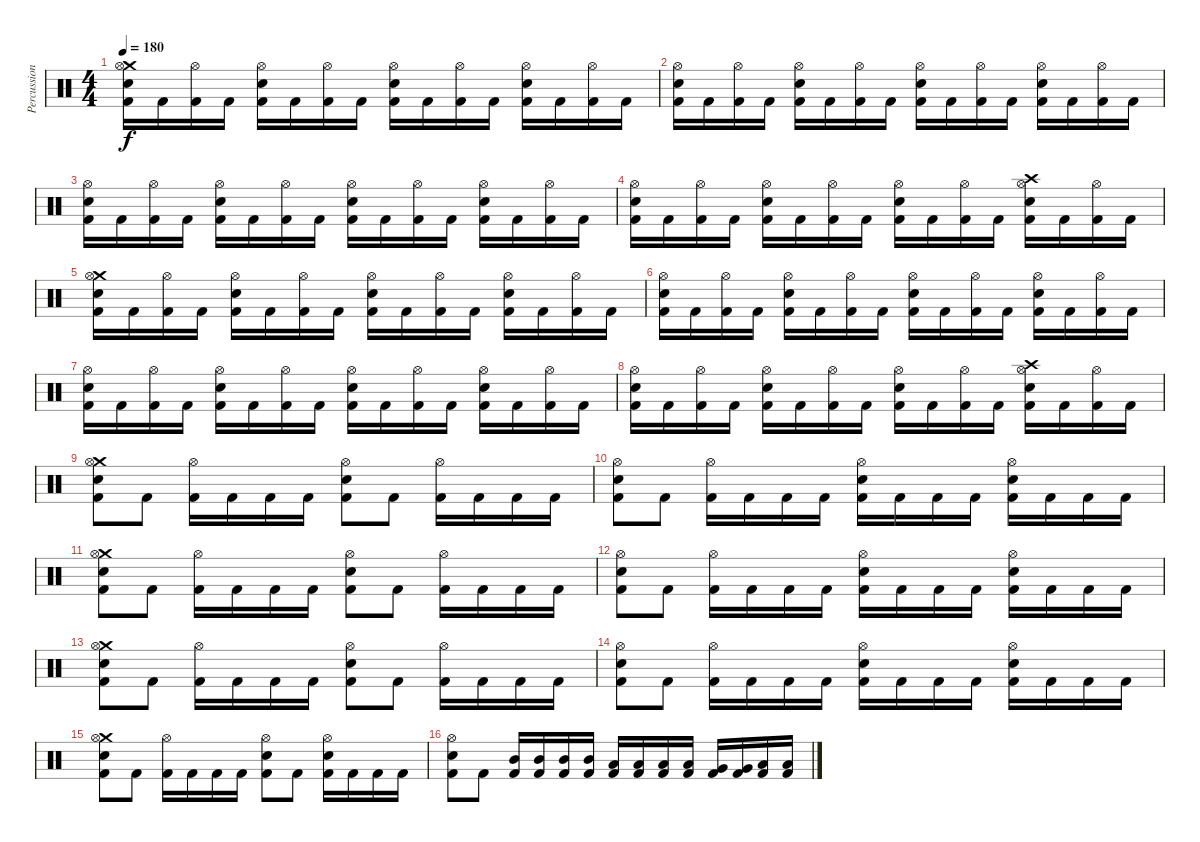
\track ("Percussion" "Percussion") {instrument percussion}
\staff {score}
\articulation defaults
\ts (4 4)
\tempo 180
\clef neutral
\ks c
("Crash medium (hit)" "Hi-Hat (open)" "Electric Snare (hit)" "Kick (hit) 2").16{dy f} "Kick (hit) 2".16 ("Hi-Hat (open)" "Kick (hit) 2").16 "Kick (hit) 2".16 ("Hi-Hat (open)" "Electric Snare (hit)" "Kick (hit) 2").16 "Kick (hit) 2".16 ("Hi-Hat (open)" "Kick (hit) 2").16 "Kick (hit) 2".16 ("Hi-Hat (open)" "Electric Snare (hit)" "Kick (hit) 2").16 "Kick (hit) 2".16 ("Hi-Hat (open)" "Kick (hit) 2").16 "Kick (hit) 2".16 ("Hi-Hat (open)" "Electric Snare (hit)" "Kick (hit) 2").16 "Kick (hit) 2".16 ("Hi-Hat (open)" "Kick (hit) 2").16 "Kick (hit) 2".16 |
("Hi-Hat (open)" "Electric Snare (hit)" "Kick (hit) 2").16 "Kick (hit) 2".16 ("Hi-Hat (open)" "Kick (hit) 2").16 "Kick (hit) 2".16 ("Hi-Hat (open)" "Electric Snare (hit)" "Kick (hit) 2").16 "Kick (hit) 2".16 ("Hi-Hat (open)" "Kick (hit) 2").16 "Kick (hit) 2".16 ("Hi-Hat (open)" "Electric Snare (hit)" "Kick (hit) 2").16 "Kick (hit) 2".16 ("Hi-Hat (open)" "Kick (hit) 2").16 "Kick (hit) 2".16 ("Hi-Hat (open)" "Electric Snare (hit)" "Kick (hit) 2").16 "Kick (hit) 2".16 ("Hi-Hat (open)" "Kick (hit) 2").16 "Kick (hit) 2".16 |
("Hi-Hat (open)" "Electric Snare (hit)" "Kick (hit) 2").16 "Kick (hit) 2".16 ("Hi-Hat (open)" "Kick (hit) 2").16 "Kick (hit) 2".16 ("Hi-Hat (open)" "Electric Snare (hit)" "Kick (hit) 2").16 "Kick (hit) 2".16 ("Hi-Hat (open)" "Kick (hit) 2").16 "Kick (hit) 2".16 ("Hi-Hat (open)" "Electric Snare (hit)" "Kick (hit) 2").16 "Kick (hit) 2".16 ("Hi-Hat (open)" "Kick (hit) 2").16 "Kick (hit) 2".16 ("Hi-Hat (open)" "Electric Snare (hit)" "Kick (hit) 2").16 "Kick (hit) 2".16 ("Hi-Hat (open)" "Kick (hit) 2").16 "Kick (hit) 2".16 |
("Hi-Hat (open)" "Electric Snare (hit)" "Kick (hit) 2").16 "Kick (hit) 2".16 ("Hi-Hat (open)" "Kick (hit) 2").16 "Kick (hit) 2".16 ("Hi-Hat (open)" "Electric Snare (hit)" "Kick (hit) 2").16 "Kick (hit) 2".16 ("Hi-Hat (open)" "Kick (hit) 2").16 "Kick (hit) 2".16 ("Hi-Hat (open)" "Electric Snare (hit)" "Kick (hit) 2").16 "Kick (hit) 2".16 ("Hi-Hat (open)" "Kick (hit) 2").16 "Kick (hit) 2".16 ("Crash high (hit)" "Hi-Hat (open)" "Electric Snare (hit)" "Kick (hit) 2").16 "Kick (hit) 2".16 ("Hi-Hat (open)" "Kick (hit) 2").16 "Kick (hit) 2".16 |
("Crash medium (hit)" "Hi-Hat (open)" "Electric Snare (hit)" "Kick (hit) 2").16 "Kick (hit) 2".16 ("Hi-Hat (open)" "Kick (hit) 2").16 "Kick (hit) 2".16 ("Hi-Hat (open)" "Electric Snare (hit)" "Kick (hit) 2").16 "Kick (hit) 2".16 ("Hi-Hat (open)" "Kick (hit) 2").16 "Kick (hit) 2".16 ("Hi-Hat (open)" "Electric Snare (hit)" "Kick (hit) 2").16 "Kick (hit) 2".16 ("Hi-Hat (open)" "Kick (hit) 2").16 "Kick (hit) 2".16 ("Hi-Hat (open)" "Electric Snare (hit)" "Kick (hit) 2").16 "Kick (hit) 2".16 ("Hi-Hat (open)" "Kick (hit) 2").16 "Kick (hit) 2".16 |
("Hi-Hat (open)" "Electric Snare (hit)" "Kick (hit) 2").16 "Kick (hit) 2".16 ("Hi-Hat (open)" "Kick (hit) 2").16 "Kick (hit) 2".16 ("Hi-Hat (open)" "Electric Snare (hit)" "Kick (hit) 2").16 "Kick (hit) 2".16 ("Hi-Hat (open)" "Kick (hit) 2").16 "Kick (hit) 2".16 ("Hi-Hat (open)" "Electric Snare (hit)" "Kick (hit) 2").16 "Kick (hit) 2".16 ("Hi-Hat (open)" "Kick (hit) 2").16 "Kick (hit) 2".16 ("Hi-Hat (open)" "Electric Snare (hit)" "Kick (hit) 2").16 "Kick (hit) 2".16 ("Hi-Hat (open)" "Kick (hit) 2").16 "Kick (hit) 2".16 |
("Hi-Hat (open)" "Electric Snare (hit)" "Kick (hit) 2").16 "Kick (hit) 2".16 ("Hi-Hat (open)" "Kick (hit) 2").16 "Kick (hit) 2".16 ("Hi-Hat (open)" "Electric Snare (hit)" "Kick (hit) 2").16 "Kick (hit) 2".16 ("Hi-Hat (open)" "Kick (hit) 2").16 "Kick (hit) 2".16 ("Hi-Hat (open)" "Electric Snare (hit)" "Kick (hit) 2").16 "Kick (hit) 2".16 ("Hi-Hat (open)" "Kick (hit) 2").16 "Kick (hit) 2".16 ("Hi-Hat (open)" "Electric Snare (hit)" "Kick (hit) 2").16 "Kick (hit) 2".16 ("Hi-Hat (open)" "Kick (hit) 2").16 "Kick (hit) 2".16 |
("Hi-Hat (open)" "Electric Snare (hit)" "Kick (hit) 2").16 "Kick (hit) 2".16 ("Hi-Hat (open)" "Kick (hit) 2").16 "Kick (hit) 2".16 ("Hi-Hat (open)" "Electric Snare (hit)" "Kick (hit) 2").16 "Kick (hit) 2".16 ("Hi-Hat (open)" "Kick (hit) 2").16 "Kick (hit) 2".16 ("Hi-Hat (open)" "Electric Snare (hit)" "Kick (hit) 2").16 "Kick (hit) 2".16 ("Hi-Hat (open)" "Kick (hit) 2").16 "Kick (hit) 2".16 ("Crash high (hit)" "Hi-Hat (open)" "Electric Snare (hit)" "Kick (hit) 2").16 "Kick (hit) 2".16 ("Hi-Hat (open)" "Kick (hit) 2").16 "Kick (hit) 2".16 |
("Crash medium (hit)" "Hi-Hat (open)" "Electric Snare (hit)" "Kick (hit) 2").8 "Kick (hit) 2".8 ("Hi-Hat (open)" "Kick (hit) 2").16 "Kick (hit) 2".16 "Kick (hit) 2".16 "Kick (hit) 2".16 ("Hi-Hat (open)" "Electric Snare (hit)" "Kick (hit) 2").8 "Kick (hit) 2".8 ("Hi-Hat (open)" "Kick (hit) 2").16 "Kick (hit) 2".16 "Kick (hit) 2".16 "Kick (hit) 2".16 |
("Hi-Hat (open)" "Electric Snare (hit)" "Kick (hit) 2").8 "Kick (hit) 2".8 ("Hi-Hat (open)" "Kick (hit) 2").16 "Kick (hit) 2".16 "Kick (hit) 2".16 "Kick (hit) 2".16 ("Hi-Hat (open)" "Electric Snare (hit)" "Kick (hit) 2").16 "Kick (hit) 2".16 "Kick (hit) 2".16 "Kick (hit) 2".16 ("Hi-Hat (open)" "Electric Snare (hit)" "Kick (hit) 2").16 "Kick (hit) 2".16 "Kick (hit) 2".16 "Kick (hit) 2".16 |
("Crash medium (hit)" "Hi-Hat (open)" "Electric Snare (hit)" "Kick (hit) 2").8 "Kick (hit) 2".8 ("Hi-Hat (open)" "Kick (hit) 2").16 "Kick (hit) 2".16 "Kick (hit) 2".16 "Kick (hit) 2".16 ("Hi-Hat (open)" "Electric Snare (hit)" "Kick (hit) 2").8 "Kick (hit) 2".8 ("Hi-Hat (open)" "Kick (hit) 2").16 "Kick (hit) 2".16 "Kick (hit) 2".16 "Kick (hit) 2".16 |
("Hi-Hat (open)" "Electric Snare (hit)" "Kick (hit) 2").8 "Kick (hit) 2".8 ("Hi-Hat (open)" "Kick (hit) 2").16 "Kick (hit) 2".16 "Kick (hit) 2".16 "Kick (hit) 2".16 ("Hi-Hat (open)" "Electric Snare (hit)" "Kick (hit) 2").16 "Kick (hit) 2".16 "Kick (hit) 2".16 "Kick (hit) 2".16 ("Hi-Hat (open)" "Electric Snare (hit)" "Kick (hit) 2").16 "Kick (hit) 2".16 "Kick (hit) 2".16 "Kick (hit) 2".16 |
("Crash medium (hit)" "Hi-Hat (open)" "Electric Snare (hit)" "Kick (hit) 2").8 "Kick (hit) 2".8 ("Hi-Hat (open)" "Kick (hit) 2").16 "Kick (hit) 2".16 "Kick (hit) 2".16 "Kick (hit) 2".16 ("Hi-Hat (open)" "Electric Snare (hit)" "Kick (hit) 2").8 "Kick (hit) 2".8 ("Hi-Hat (open)" "Kick (hit) 2").16 "Kick (hit) 2".16 "Kick (hit) 2".16 "Kick (hit) 2".16 |
("Hi-Hat (open)" "Electric Snare (hit)" "Kick (hit) 2").8 "Kick (hit) 2".8 ("Hi-Hat (open)" "Kick (hit) 2").16 "Kick (hit) 2".16 "Kick (hit) 2".16 "Kick (hit) 2".16 ("Hi-Hat (open)" "Electric Snare (hit)" "Kick (hit) 2").16 "Kick (hit) 2".16 "Kick (hit) 2".16 "Kick (hit) 2".16 ("Hi-Hat (open)" "Electric Snare (hit)" "Kick (hit) 2").16 "Kick (hit) 2".16 "Kick (hit) 2".16 "Kick (hit) 2".16 |
("Crash medium (hit)" "Hi-Hat (open)" "Electric Snare (hit)" "Kick (hit) 2").8 "Kick (hit) 2".8 ("Hi-Hat (open)" "Kick (hit) 2").16 "Kick (hit) 2".16 "Kick (hit) 2".16 "Kick (hit) 2".16 ("Hi-Hat (open)" "Electric Snare (hit)" "Kick (hit) 2").8 "Kick (hit) 2".8 ("Hi-Hat (open)" "Electric Snare (hit)" "Kick (hit) 2").16 "Kick (hit) 2".16 "Kick (hit) 2".16 "Kick (hit) 2".16 |
("Hi-Hat (open)" "Electric Snare (hit)" "Kick (hit) 2").8 "Kick (hit) 2".8 ("Mid Tom (hit)" "Kick (hit) 2").16 ("Mid Tom (hit)" "Kick (hit) 2").16 ("Mid Tom (hit)" "Kick (hit) 2").16 ("Mid Tom (hit)" "Kick (hit) 2").16 ("Low Tom (hit)" "Kick (hit) 2").16 ("Low Tom (hit)" "Kick (hit) 2").16 ("Low Tom (hit)" "Kick (hit) 2").16 ("Low Tom (hit)" "Kick (hit) 2").16 ("Very Low Tom (hit)" "Kick (hit) 2").16 ("Very Low Tom (hit)" "Kick (hit) 2").16 ("Low Floor Tom (hit)" "Kick (hit) 2").16 ("Low Floor Tom (hit)" "Kick (hit) 2").16
